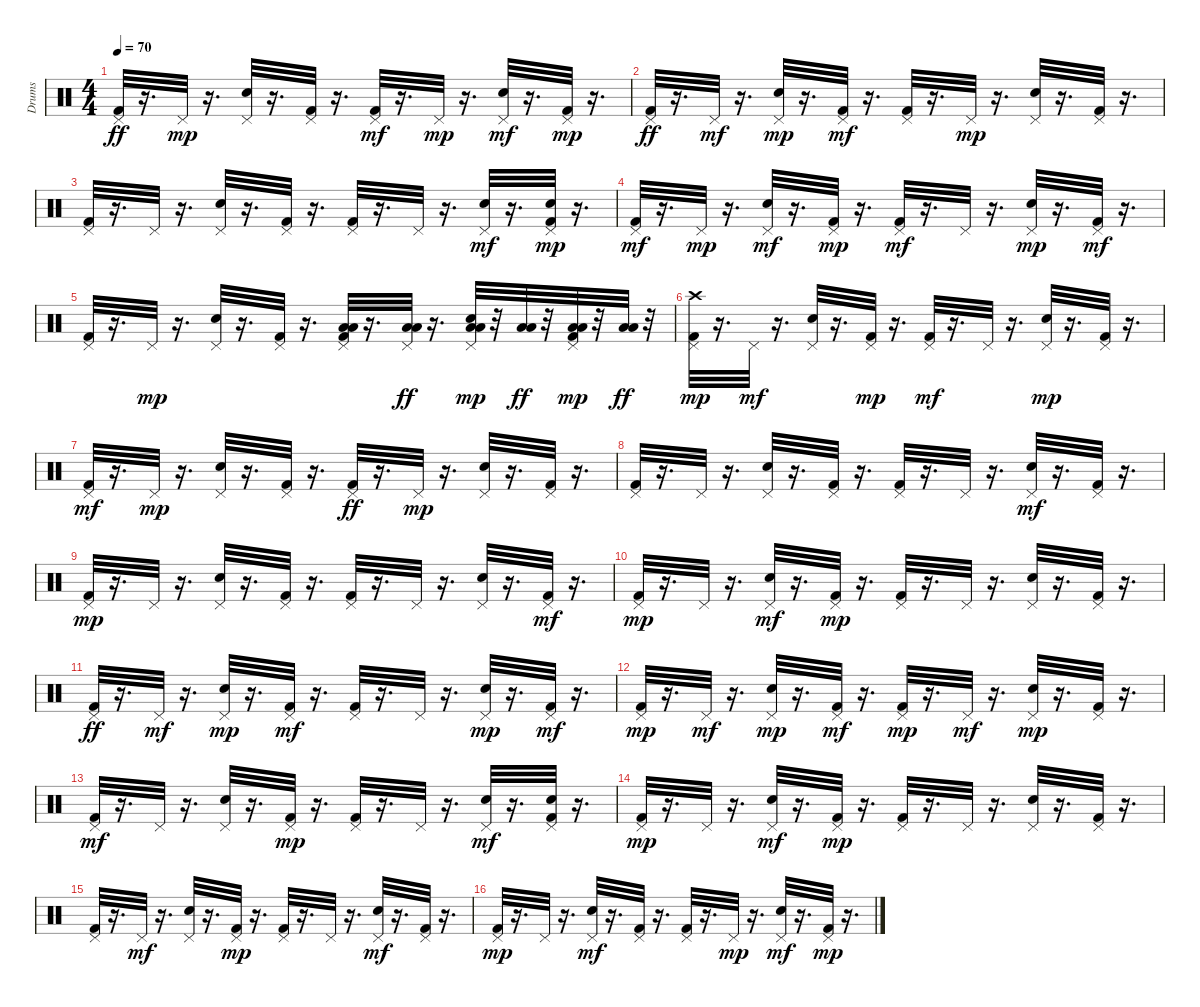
\track ("Drums" "Drums") {instrument percussion}
\staff {score}
\articulation defaults
\ts (4 4)
\tempo 70
\clef neutral
\ks c
("Pedal Hi-Hat (hit)" "Kick (hit) 2").32{dy ff} r.16{d} "Pedal Hi-Hat (hit)".32{dy mp} r.16{d} ("Snare (hit) 2" "Pedal Hi-Hat (hit)").32 r.16{d} ("Pedal Hi-Hat (hit)" "Kick (hit) 2").32 r.16{d} ("Kick (hit) 2" "Pedal Hi-Hat (hit)").32{dy mf} r.16{d} "Pedal Hi-Hat (hit)".32{dy mp} r.16{d} ("Snare (hit) 2" "Pedal Hi-Hat (hit)").32{dy mf} r.16{d} ("Pedal Hi-Hat (hit)" "Kick (hit) 2").32{dy mp} r.16{d} |
("Pedal Hi-Hat (hit)" "Kick (hit) 2").32{dy ff} r.16{d} "Pedal Hi-Hat (hit)".32{dy mf} r.16{d} ("Snare (hit) 2" "Pedal Hi-Hat (hit)").32{dy mp} r.16{d} ("Pedal Hi-Hat (hit)" "Kick (hit) 2").32{dy mf} r.16{d} ("Kick (hit) 2" "Pedal Hi-Hat (hit)").32 r.16{d} "Pedal Hi-Hat (hit)".32{dy mp} r.16{d} ("Pedal Hi-Hat (hit)" "Snare (hit) 2").32 r.16{d} ("Kick (hit) 2" "Pedal Hi-Hat (hit)").32 r.16{d} |
("Pedal Hi-Hat (hit)" "Kick (hit) 2").32 r.16{d} "Pedal Hi-Hat (hit)".32 r.16{d} ("Snare (hit) 2" "Pedal Hi-Hat (hit)").32 r.16{d} ("Pedal Hi-Hat (hit)" "Kick (hit) 2").32 r.16{d} ("Pedal Hi-Hat (hit)" "Kick (hit) 2").32 r.16{d} "Pedal Hi-Hat (hit)".32 r.16{d} ("Pedal Hi-Hat (hit)" "Snare (hit) 2").32{dy mf} r.16{d} ("Snare (hit) 2" "Kick (hit) 2" "Pedal Hi-Hat (hit)").32{dy mp} r.16{d} |
("Pedal Hi-Hat (hit)" "Kick (hit) 2").32{dy mf} r.16{d} "Pedal Hi-Hat (hit)".32{dy mp} r.16{d} ("Pedal Hi-Hat (hit)" "Snare (hit) 2").32{dy mf} r.16{d} ("Pedal Hi-Hat (hit)" "Kick (hit) 2").32{dy mp} r.16{d} ("Kick (hit) 2" "Pedal Hi-Hat (hit)").32{dy mf} r.16{d} "Pedal Hi-Hat (hit)".32 r.16{d} ("Snare (hit) 2" "Pedal Hi-Hat (hit)").32{dy mp} r.16{d} ("Kick (hit) 2" "Pedal Hi-Hat (hit)").32{dy mf} r.16{d} |
("Kick (hit) 2" "Pedal Hi-Hat (hit)").32 r.16{d} "Pedal Hi-Hat (hit)".32{dy mp} r.16{d} ("Pedal Hi-Hat (hit)" "Snare (hit) 2").32 r.16{d} ("Kick (hit) 2" "Pedal Hi-Hat (hit)").32 r.16{d} ("Kick (hit) 2" "Pedal Hi-Hat (hit)" "Low Tom (hit)" "Low Floor Tom (hit)").32 r.16{d} ("Low Tom (hit)" "Pedal Hi-Hat (hit)" "Low Floor Tom (hit)").32{dy ff} r.16{d} ("Low Floor Tom (hit)" "Snare (hit) 2" "Low Tom (hit)" "Pedal Hi-Hat (hit)").32{dy mp} r.32 ("Low Floor Tom (hit)" "Low Tom (hit)").32{dy ff} r.32 ("Low Tom (hit)" "Pedal Hi-Hat (hit)" "Low Floor Tom (hit)" "Kick (hit) 2").32{dy mp} r.32 ("Low Tom (hit)" "Low Floor Tom (hit)").32{dy ff} r.32 |
("Crash high (hit)" "Kick (hit) 2" "Pedal Hi-Hat (hit)").32{dy mp} r.16{d} "Pedal Hi-Hat (hit)".32{dy mf} r.16{d} ("Pedal Hi-Hat (hit)" "Snare (hit) 2").32 r.16{d} ("Pedal Hi-Hat (hit)" "Kick (hit) 2").32{dy mp} r.16{d} ("Pedal Hi-Hat (hit)" "Kick (hit) 2").32{dy mf} r.16{d} "Pedal Hi-Hat (hit)".32 r.16{d} ("Pedal Hi-Hat (hit)" "Snare (hit) 2").32{dy mp} r.16{d} ("Kick (hit) 2" "Pedal Hi-Hat (hit)").32 r.16{d} |
("Pedal Hi-Hat (hit)" "Kick (hit) 2").32{dy mf} r.16{d} "Pedal Hi-Hat (hit)".32{dy mp} r.16{d} ("Pedal Hi-Hat (hit)" "Snare (hit) 2").32 r.16{d} ("Pedal Hi-Hat (hit)" "Kick (hit) 2").32 r.16{d} ("Pedal Hi-Hat (hit)" "Kick (hit) 2").32{dy ff} r.16{d} "Pedal Hi-Hat (hit)".32{dy mp} r.16{d} ("Snare (hit) 2" "Pedal Hi-Hat (hit)").32 r.16{d} ("Pedal Hi-Hat (hit)" "Kick (hit) 2").32 r.16{d} |
("Kick (hit) 2" "Pedal Hi-Hat (hit)").32 r.16{d} "Pedal Hi-Hat (hit)".32 r.16{d} ("Snare (hit) 2" "Pedal Hi-Hat (hit)").32 r.16{d} ("Kick (hit) 2" "Pedal Hi-Hat (hit)").32 r.16{d} ("Pedal Hi-Hat (hit)" "Kick (hit) 2").32 r.16{d} "Pedal Hi-Hat (hit)".32 r.16{d} ("Snare (hit) 2" "Pedal Hi-Hat (hit)").32{dy mf} r.16{d} ("Kick (hit) 2" "Pedal Hi-Hat (hit)").32 r.16{d} |
("Kick (hit) 2" "Pedal Hi-Hat (hit)").32{dy mp} r.16{d} "Pedal Hi-Hat (hit)".32 r.16{d} ("Pedal Hi-Hat (hit)" "Snare (hit) 2").32 r.16{d} ("Pedal Hi-Hat (hit)" "Kick (hit) 2").32 r.16{d} ("Kick (hit) 2" "Pedal Hi-Hat (hit)").32 r.16{d} "Pedal Hi-Hat (hit)".32 r.16{d} ("Snare (hit) 2" "Pedal Hi-Hat (hit)").32 r.16{d} ("Pedal Hi-Hat (hit)" "Kick (hit) 2").32{dy mf} r.16{d} |
("Pedal Hi-Hat (hit)" "Kick (hit) 2").32{dy mp} r.16{d} "Pedal Hi-Hat (hit)".32 r.16{d} ("Snare (hit) 2" "Pedal Hi-Hat (hit)").32{dy mf} r.16{d} ("Pedal Hi-Hat (hit)" "Kick (hit) 2").32{dy mp} r.16{d} ("Kick (hit) 2" "Pedal Hi-Hat (hit)").32 r.16{d} "Pedal Hi-Hat (hit)".32 r.16{d} ("Pedal Hi-Hat (hit)" "Snare (hit) 2").32 r.16{d} ("Pedal Hi-Hat (hit)" "Kick (hit) 2").32 r.16{d} |
("Pedal Hi-Hat (hit)" "Kick (hit) 2").32{dy ff} r.16{d} "Pedal Hi-Hat (hit)".32{dy mf} r.16{d} ("Snare (hit) 2" "Pedal Hi-Hat (hit)").32{dy mp} r.16{d} ("Kick (hit) 2" "Pedal Hi-Hat (hit)").32{dy mf} r.16{d} ("Kick (hit) 2" "Pedal Hi-Hat (hit)").32 r.16{d} "Pedal Hi-Hat (hit)".32 r.16{d} ("Pedal Hi-Hat (hit)" "Snare (hit) 2").32{dy mp} r.16{d} ("Pedal Hi-Hat (hit)" "Kick (hit) 2").32{dy mf} r.16{d} |
("Pedal Hi-Hat (hit)" "Kick (hit) 2").32{dy mp} r.16{d} "Pedal Hi-Hat (hit)".32{dy mf} r.16{d} ("Pedal Hi-Hat (hit)" "Snare (hit) 2").32{dy mp} r.16{d} ("Pedal Hi-Hat (hit)" "Kick (hit) 2").32{dy mf} r.16{d} ("Kick (hit) 2" "Pedal Hi-Hat (hit)").32{dy mp} r.16{d} "Pedal Hi-Hat (hit)".32{dy mf} r.16{d} ("Pedal Hi-Hat (hit)" "Snare (hit) 2").32{dy mp} r.16{d} ("Kick (hit) 2" "Pedal Hi-Hat (hit)").32 r.16{d} |
("Kick (hit) 2" "Pedal Hi-Hat (hit)").32{dy mf} r.16{d} "Pedal Hi-Hat (hit)".32 r.16{d} ("Pedal Hi-Hat (hit)" "Snare (hit) 2").32 r.16{d} ("Pedal Hi-Hat (hit)" "Kick (hit) 2").32{dy mp} r.16{d} ("Pedal Hi-Hat (hit)" "Kick (hit) 2").32 r.16{d} "Pedal Hi-Hat (hit)".32 r.16{d} ("Pedal Hi-Hat (hit)" "Snare (hit) 2").32{dy mf} r.16{d} ("Pedal Hi-Hat (hit)" "Kick (hit) 2" "Snare (hit) 2").32 r.16{d} |
("Kick (hit) 2" "Pedal Hi-Hat (hit)").32{dy mp} r.16{d} "Pedal Hi-Hat (hit)".32 r.16{d} ("Pedal Hi-Hat (hit)" "Snare (hit) 2").32{dy mf} r.16{d} ("Kick (hit) 2" "Pedal Hi-Hat (hit)").32{dy mp} r.16{d} ("Pedal Hi-Hat (hit)" "Kick (hit) 2").32 r.16{d} "Pedal Hi-Hat (hit)".32 r.16{d} ("Pedal Hi-Hat (hit)" "Snare (hit) 2").32 r.16{d} ("Pedal Hi-Hat (hit)" "Kick (hit) 2").32 r.16{d} |
("Kick (hit) 2" "Pedal Hi-Hat (hit)").32 r.16{d} "Pedal Hi-Hat (hit)".32{dy mf} r.16{d} ("Pedal Hi-Hat (hit)" "Snare (hit) 2").32 r.16{d} ("Pedal Hi-Hat (hit)" "Kick (hit) 2").32{dy mp} r.16{d} ("Pedal Hi-Hat (hit)" "Kick (hit) 2").32 r.16{d} "Pedal Hi-Hat (hit)".32 r.16{d} ("Snare (hit) 2" "Pedal Hi-Hat (hit)").32{dy mf} r.16{d} ("Kick (hit) 2" "Pedal Hi-Hat (hit)").32 r.16{d} |
("Pedal Hi-Hat (hit)" "Kick (hit) 2").32{dy mp} r.16{d} "Pedal Hi-Hat (hit)".32 r.16{d} ("Pedal Hi-Hat (hit)" "Snare (hit) 2").32{dy mf} r.16{d} ("Kick (hit) 2" "Pedal Hi-Hat (hit)").32 r.16{d} ("Kick (hit) 2" "Pedal Hi-Hat (hit)").32 r.16{d} "Pedal Hi-Hat (hit)".32{dy mp} r.16{d} ("Snare (hit) 2" "Pedal Hi-Hat (hit)").32{dy mf} r.16{d} ("Pedal Hi-Hat (hit)" "Kick (hit) 2").32{dy mp} r.16{d}
